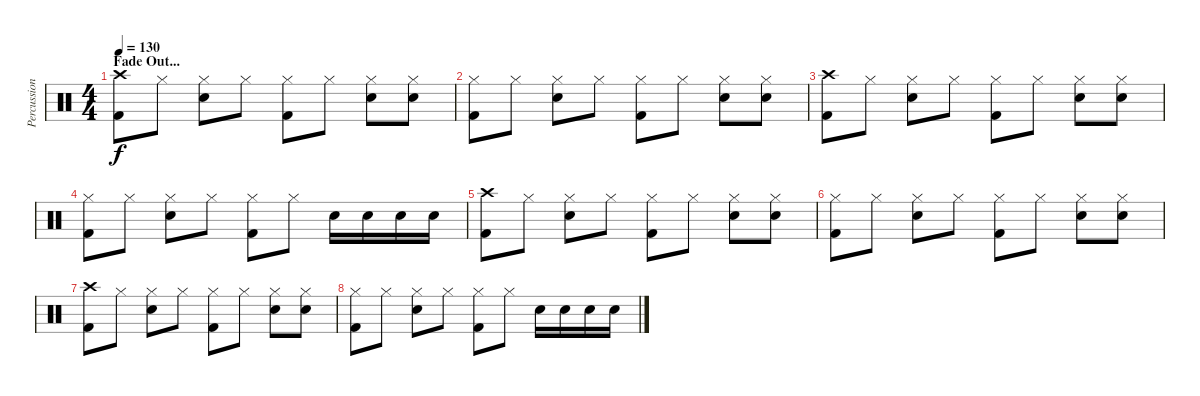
\track ("Percussion" "Percussion") {instrument percussion}
\staff {score}
\articulation defaults
\ts (4 4)
\section ("" "Fade Out...")
\tempo 130
\clef neutral
\ks c
("Crash high (hit)" "Kick (hit) 2").8{dy f} "Hi-Hat (closed)".8 ("Hi-Hat (closed)" "Electric Snare (hit)").8 "Hi-Hat (closed)".8 ("Hi-Hat (closed)" "Kick (hit) 2").8 "Hi-Hat (closed)".8 ("Hi-Hat (closed)" "Electric Snare (hit)").8 ("Hi-Hat (closed)" "Electric Snare (hit)").8 |
("Hi-Hat (closed)" "Kick (hit) 2").8 "Hi-Hat (closed)".8 ("Hi-Hat (closed)" "Electric Snare (hit)").8 "Hi-Hat (closed)".8 ("Hi-Hat (closed)" "Kick (hit) 2").8 "Hi-Hat (closed)".8 ("Hi-Hat (closed)" "Electric Snare (hit)").8 ("Hi-Hat (closed)" "Electric Snare (hit)").8 |
("Crash high (hit)" "Kick (hit) 2").8 "Hi-Hat (closed)".8 ("Hi-Hat (closed)" "Electric Snare (hit)").8 "Hi-Hat (closed)".8 ("Hi-Hat (closed)" "Kick (hit) 2").8 "Hi-Hat (closed)".8 ("Hi-Hat (closed)" "Electric Snare (hit)").8 ("Hi-Hat (closed)" "Electric Snare (hit)").8 |
("Hi-Hat (closed)" "Kick (hit) 2").8 "Hi-Hat (closed)".8 ("Hi-Hat (closed)" "Electric Snare (hit)").8 "Hi-Hat (closed)".8 ("Hi-Hat (closed)" "Kick (hit) 2").8 "Hi-Hat (closed)".8 "Electric Snare (hit)".16 "Electric Snare (hit)".16 "Electric Snare (hit)".16 "Electric Snare (hit)".16 |
("Crash high (hit)" "Kick (hit) 2").8 "Hi-Hat (closed)".8 ("Hi-Hat (closed)" "Electric Snare (hit)").8 "Hi-Hat (closed)".8 ("Hi-Hat (closed)" "Kick (hit) 2").8 "Hi-Hat (closed)".8 ("Hi-Hat (closed)" "Electric Snare (hit)").8 ("Hi-Hat (closed)" "Electric Snare (hit)").8 |
("Hi-Hat (closed)" "Kick (hit) 2").8 "Hi-Hat (closed)".8 ("Hi-Hat (closed)" "Electric Snare (hit)").8 "Hi-Hat (closed)".8 ("Hi-Hat (closed)" "Kick (hit) 2").8 "Hi-Hat (closed)".8 ("Hi-Hat (closed)" "Electric Snare (hit)").8 ("Hi-Hat (closed)" "Electric Snare (hit)").8 |
("Crash high (hit)" "Kick (hit) 2").8 "Hi-Hat (closed)".8 ("Hi-Hat (closed)" "Electric Snare (hit)").8 "Hi-Hat (closed)".8 ("Hi-Hat (closed)" "Kick (hit) 2").8 "Hi-Hat (closed)".8 ("Hi-Hat (closed)" "Electric Snare (hit)").8 ("Hi-Hat (closed)" "Electric Snare (hit)").8 |
("Hi-Hat (closed)" "Kick (hit) 2").8 "Hi-Hat (closed)".8 ("Hi-Hat (closed)" "Electric Snare (hit)").8 "Hi-Hat (closed)".8 ("Hi-Hat (closed)" "Kick (hit) 2").8 "Hi-Hat (closed)".8 "Electric Snare (hit)".16 "Electric Snare (hit)".16 "Electric Snare (hit)".16 "Electric Snare (hit)".16
